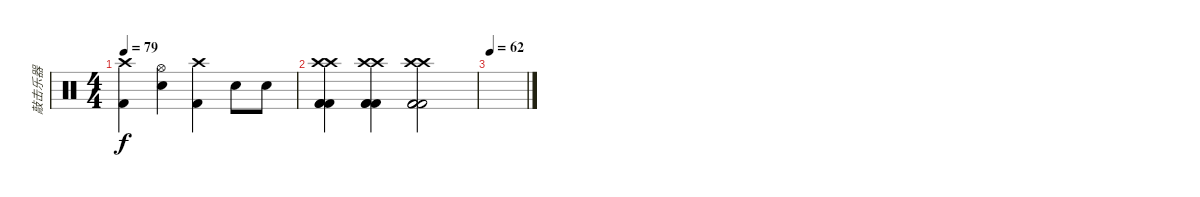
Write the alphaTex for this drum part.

\track ("敲击乐器" "敲击乐器") {instrument percussion}
\staff {score}
\articulation defaults
\ts (4 4)
\tempo 79
\clef neutral
\ks c
("Crash high (hit)" "Kick (hit) 2").4{dy f} ("Hi-Hat (open)" "Electric Snare (hit)").4 ("Crash high (hit)" "Kick (hit) 2").4 "Electric Snare (hit)".8 "Electric Snare (hit)".8 |
("Kick (hit) 2" "Crash high (hit)" "Crash high (hit)" "Kick (hit) 2" "Kick (hit) 2").4 ("Kick (hit) 2" "Crash high (hit)" "Crash high (hit)" "Kick (hit) 2" "Kick (hit) 2").4 ("Kick (hit) 2" "Crash high (hit)" "Crash high (hit)" "Kick (hit) 2" "Kick (hit) 2").2 |
\tempo 62
